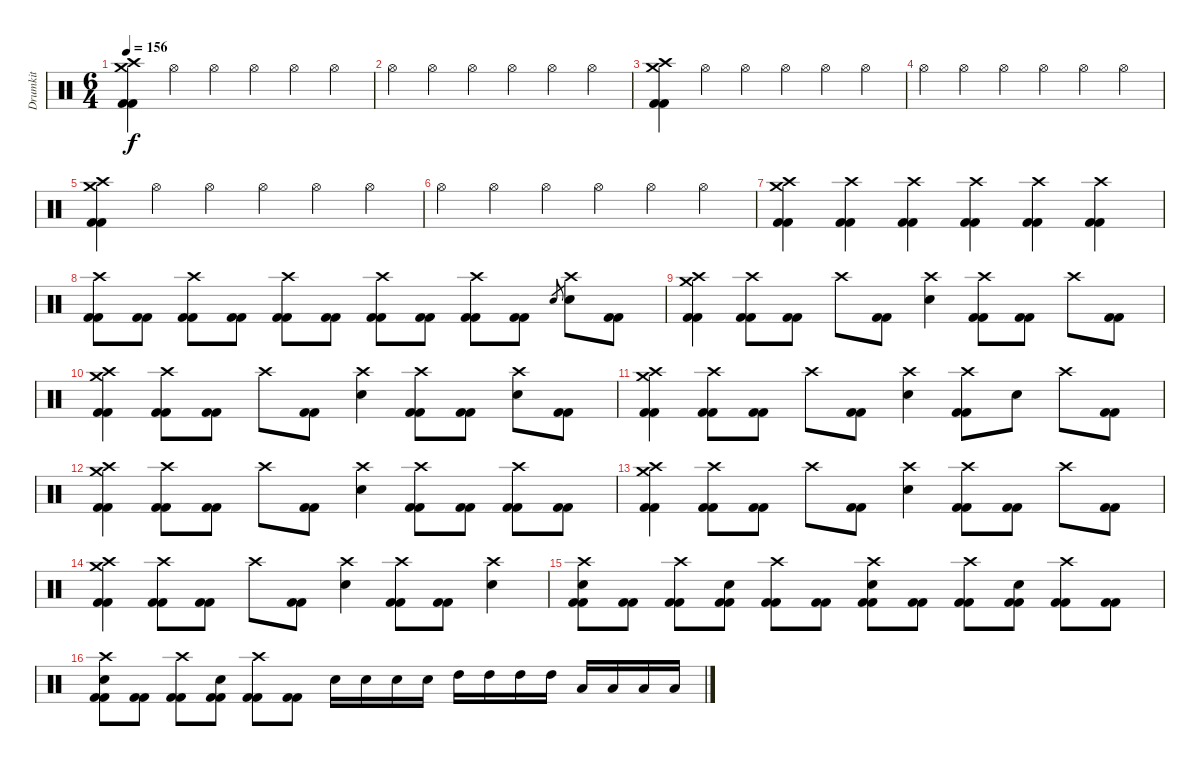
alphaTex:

\track ("Drumkit" "Drumkit") {instrument percussion bank 210}
\staff {score}
\articulation defaults
\ts (6 4)
\tempo 156
\clef neutral
\ks c
("Crash high (hit)" "Crash medium (hit)" "Kick (hit) 2" "Kick (hit) 2").4{dy f} "Hi-Hat (open)".4 "Hi-Hat (open)".4 "Hi-Hat (open)".4 "Hi-Hat (open)".4 "Hi-Hat (open)".4 |
"Hi-Hat (open)".4 "Hi-Hat (open)".4 "Hi-Hat (open)".4 "Hi-Hat (open)".4 "Hi-Hat (open)".4 "Hi-Hat (open)".4 |
("Crash high (hit)" "Crash medium (hit)" "Kick (hit) 2" "Kick (hit) 2").4 "Hi-Hat (open)".4 "Hi-Hat (open)".4 "Hi-Hat (open)".4 "Hi-Hat (open)".4 "Hi-Hat (open)".4 |
"Hi-Hat (open)".4 "Hi-Hat (open)".4 "Hi-Hat (open)".4 "Hi-Hat (open)".4 "Hi-Hat (open)".4 "Hi-Hat (open)".4 |
("Crash high (hit)" "Crash medium (hit)" "Kick (hit) 2" "Kick (hit) 2").4 "Hi-Hat (open)".4 "Hi-Hat (open)".4 "Hi-Hat (open)".4 "Hi-Hat (open)".4 "Hi-Hat (open)".4 |
"Hi-Hat (open)".4 "Hi-Hat (open)".4 "Hi-Hat (open)".4 "Hi-Hat (open)".4 "Hi-Hat (open)".4 "Hi-Hat (open)".4 |
("Crash medium (hit)" "Crash high (hit)" "Kick (hit) 2" "Kick (hit) 2").4 ("Crash high (hit)" "Kick (hit) 2" "Kick (hit) 2").4 ("Crash high (hit)" "Kick (hit) 2" "Kick (hit) 2").4 ("Crash high (hit)" "Kick (hit) 2" "Kick (hit) 2").4 ("Crash high (hit)" "Kick (hit) 2" "Kick (hit) 2").4 ("Crash high (hit)" "Kick (hit) 2" "Kick (hit) 2").4 |
("Crash high (hit)" "Kick (hit) 2" "Kick (hit) 2").8 ("Kick (hit) 2" "Kick (hit) 2").8 ("Crash high (hit)" "Kick (hit) 2" "Kick (hit) 2").8 ("Kick (hit) 2" "Kick (hit) 2").8 ("Crash high (hit)" "Kick (hit) 2" "Kick (hit) 2").8 ("Kick (hit) 2" "Kick (hit) 2").8 ("Crash high (hit)" "Kick (hit) 2" "Kick (hit) 2").8 ("Kick (hit) 2" "Kick (hit) 2").8 ("Crash high (hit)" "Kick (hit) 2" "Kick (hit) 2").8 ("Kick (hit) 2" "Kick (hit) 2").8 "Electric Snare (hit)".8{gr} ("Crash high (hit)" "Electric Snare (hit)").8 ("Kick (hit) 2" "Kick (hit) 2").8 |
("Crash medium (hit)" "Crash high (hit)" "Kick (hit) 2" "Kick (hit) 2").4 ("Crash high (hit)" "Kick (hit) 2" "Kick (hit) 2").8 ("Kick (hit) 2" "Kick (hit) 2").8 "Crash high (hit)".8 ("Kick (hit) 2" "Kick (hit) 2").8 ("Crash high (hit)" "Electric Snare (hit)").4 ("Crash high (hit)" "Kick (hit) 2" "Kick (hit) 2").8 ("Kick (hit) 2" "Kick (hit) 2").8 "Crash high (hit)".8 ("Kick (hit) 2" "Kick (hit) 2").8 |
("Crash medium (hit)" "Crash high (hit)" "Kick (hit) 2" "Kick (hit) 2").4 ("Crash high (hit)" "Kick (hit) 2" "Kick (hit) 2").8 ("Kick (hit) 2" "Kick (hit) 2").8 "Crash high (hit)".8 ("Kick (hit) 2" "Kick (hit) 2").8 ("Crash high (hit)" "Electric Snare (hit)").4 ("Crash high (hit)" "Kick (hit) 2" "Kick (hit) 2").8 ("Kick (hit) 2" "Kick (hit) 2").8 ("Crash high (hit)" "Electric Snare (hit)").8 ("Kick (hit) 2" "Kick (hit) 2").8 |
("Crash medium (hit)" "Crash high (hit)" "Kick (hit) 2" "Kick (hit) 2").4 ("Crash high (hit)" "Kick (hit) 2" "Kick (hit) 2").8 ("Kick (hit) 2" "Kick (hit) 2").8 "Crash high (hit)".8 ("Kick (hit) 2" "Kick (hit) 2").8 ("Crash high (hit)" "Electric Snare (hit)").4 ("Crash high (hit)" "Kick (hit) 2" "Kick (hit) 2").8 "Electric Snare (hit)".8 "Crash high (hit)".8 ("Kick (hit) 2" "Kick (hit) 2").8 |
("Crash medium (hit)" "Crash high (hit)" "Kick (hit) 2" "Kick (hit) 2").4 ("Crash high (hit)" "Kick (hit) 2" "Kick (hit) 2").8 ("Kick (hit) 2" "Kick (hit) 2").8 "Crash high (hit)".8 ("Kick (hit) 2" "Kick (hit) 2").8 ("Crash high (hit)" "Electric Snare (hit)").4 ("Crash high (hit)" "Kick (hit) 2" "Kick (hit) 2").8 ("Kick (hit) 2" "Kick (hit) 2").8 ("Crash high (hit)" "Kick (hit) 2" "Kick (hit) 2").8 ("Kick (hit) 2" "Kick (hit) 2").8 |
("Crash medium (hit)" "Crash high (hit)" "Kick (hit) 2" "Kick (hit) 2").4 ("Crash high (hit)" "Kick (hit) 2" "Kick (hit) 2").8 ("Kick (hit) 2" "Kick (hit) 2").8 "Crash high (hit)".8 ("Kick (hit) 2" "Kick (hit) 2").8 ("Crash high (hit)" "Electric Snare (hit)").4 ("Crash high (hit)" "Kick (hit) 2" "Kick (hit) 2").8 ("Kick (hit) 2" "Kick (hit) 2").8 "Crash high (hit)".8 ("Kick (hit) 2" "Kick (hit) 2").8 |
("Crash medium (hit)" "Crash high (hit)" "Kick (hit) 2" "Kick (hit) 2").4 ("Crash high (hit)" "Kick (hit) 2" "Kick (hit) 2").8 ("Kick (hit) 2" "Kick (hit) 2").8 "Crash high (hit)".8 ("Kick (hit) 2" "Kick (hit) 2").8 ("Crash high (hit)" "Electric Snare (hit)").4 ("Crash high (hit)" "Kick (hit) 2" "Kick (hit) 2").8 ("Kick (hit) 2" "Kick (hit) 2").8 ("Crash high (hit)" "Electric Snare (hit)").4 |
("Crash high (hit)" "Electric Snare (hit)" "Kick (hit) 2" "Kick (hit) 2").8 ("Kick (hit) 2" "Kick (hit) 2").8 ("Crash high (hit)" "Kick (hit) 2" "Kick (hit) 2").8 ("Electric Snare (hit)" "Kick (hit) 2" "Kick (hit) 2").8 ("Crash high (hit)" "Kick (hit) 2" "Kick (hit) 2").8 ("Kick (hit) 2" "Kick (hit) 2").8 ("Crash high (hit)" "Electric Snare (hit)" "Kick (hit) 2" "Kick (hit) 2").8 ("Kick (hit) 2" "Kick (hit) 2").8 ("Crash high (hit)" "Kick (hit) 2" "Kick (hit) 2").8 ("Electric Snare (hit)" "Kick (hit) 2" "Kick (hit) 2").8 ("Crash high (hit)" "Kick (hit) 2" "Kick (hit) 2").8 ("Kick (hit) 2" "Kick (hit) 2").8 |
("Crash high (hit)" "Electric Snare (hit)" "Kick (hit) 2" "Kick (hit) 2").8 ("Kick (hit) 2" "Kick (hit) 2").8 ("Crash high (hit)" "Kick (hit) 2" "Kick (hit) 2").8 ("Electric Snare (hit)" "Kick (hit) 2" "Kick (hit) 2").8 ("Crash high (hit)" "Kick (hit) 2" "Kick (hit) 2").8 ("Kick (hit) 2" "Kick (hit) 2").8 "Electric Snare (hit)".16 "Electric Snare (hit)".16 "Electric Snare (hit)".16 "Electric Snare (hit)".16 "High Tom (hit)".16 "High Tom (hit)".16 "High Tom (hit)".16 "High Tom (hit)".16 "Low Tom (hit)".16 "Low Tom (hit)".16 "Low Tom (hit)".16 "Low Tom (hit)".16
